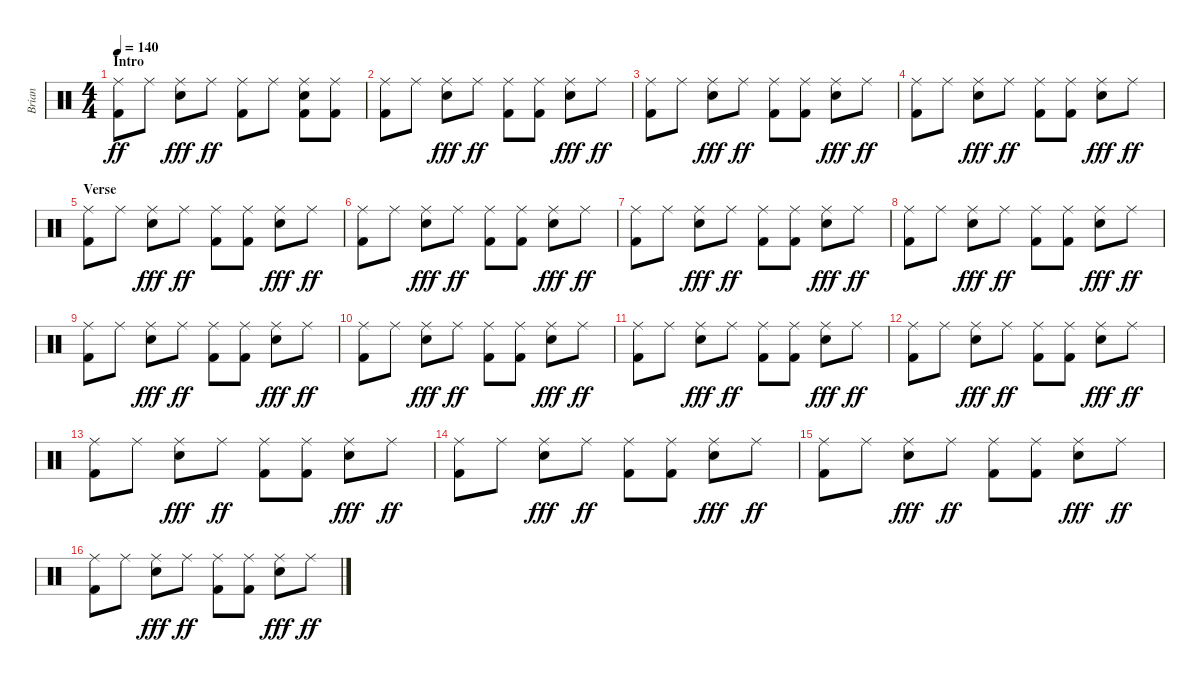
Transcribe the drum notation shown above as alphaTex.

\track ("Brian" "Brian") {instrument percussion}
\staff {score}
\articulation defaults
\ts (4 4)
\section ("" "Intro")
\tempo 140
\clef neutral
\ks c
("Ride (middle)" "Kick (hit) 2").8{dy ff} "Ride (middle)".8 ("Ride (middle)" "Snare (hit) 2").8{dy fff} "Ride (middle)".8{dy ff} ("Ride (middle)" "Kick (hit) 2").8 "Ride (middle)".8 ("Ride (middle)" "Snare (hit) 2" "Kick (hit) 2").8 ("Ride (middle)" "Kick (hit) 2").8 |
("Ride (middle)" "Kick (hit) 2").8 "Ride (middle)".8 ("Ride (middle)" "Snare (hit) 2").8{dy fff} "Ride (middle)".8{dy ff} ("Ride (middle)" "Kick (hit) 2").8 ("Ride (middle)" "Kick (hit) 2").8 ("Ride (middle)" "Snare (hit) 2").8{dy fff} "Ride (middle)".8{dy ff} |
("Ride (middle)" "Kick (hit) 2").8 "Ride (middle)".8 ("Ride (middle)" "Snare (hit) 2").8{dy fff} "Ride (middle)".8{dy ff} ("Ride (middle)" "Kick (hit) 2").8 ("Ride (middle)" "Kick (hit) 2").8 ("Ride (middle)" "Snare (hit) 2").8{dy fff} "Ride (middle)".8{dy ff} |
("Ride (middle)" "Kick (hit) 2").8 "Ride (middle)".8 ("Ride (middle)" "Snare (hit) 2").8{dy fff} "Ride (middle)".8{dy ff} ("Ride (middle)" "Kick (hit) 2").8 ("Ride (middle)" "Kick (hit) 2").8 ("Ride (middle)" "Snare (hit) 2").8{dy fff} "Ride (middle)".8{dy ff} |
\section ("" "Verse")
("Ride (middle)" "Kick (hit) 2").8 "Ride (middle)".8 ("Ride (middle)" "Snare (hit) 2").8{dy fff} "Ride (middle)".8{dy ff} ("Ride (middle)" "Kick (hit) 2").8 ("Ride (middle)" "Kick (hit) 2").8 ("Ride (middle)" "Snare (hit) 2").8{dy fff} "Ride (middle)".8{dy ff} |
("Ride (middle)" "Kick (hit) 2").8 "Ride (middle)".8 ("Ride (middle)" "Snare (hit) 2").8{dy fff} "Ride (middle)".8{dy ff} ("Ride (middle)" "Kick (hit) 2").8 ("Ride (middle)" "Kick (hit) 2").8 ("Ride (middle)" "Snare (hit) 2").8{dy fff} "Ride (middle)".8{dy ff} |
("Ride (middle)" "Kick (hit) 2").8 "Ride (middle)".8 ("Ride (middle)" "Snare (hit) 2").8{dy fff} "Ride (middle)".8{dy ff} ("Ride (middle)" "Kick (hit) 2").8 ("Ride (middle)" "Kick (hit) 2").8 ("Ride (middle)" "Snare (hit) 2").8{dy fff} "Ride (middle)".8{dy ff} |
("Ride (middle)" "Kick (hit) 2").8 "Ride (middle)".8 ("Ride (middle)" "Snare (hit) 2").8{dy fff} "Ride (middle)".8{dy ff} ("Ride (middle)" "Kick (hit) 2").8 ("Ride (middle)" "Kick (hit) 2").8 ("Ride (middle)" "Snare (hit) 2").8{dy fff} "Ride (middle)".8{dy ff} |
("Ride (middle)" "Kick (hit) 2").8 "Ride (middle)".8 ("Ride (middle)" "Snare (hit) 2").8{dy fff} "Ride (middle)".8{dy ff} ("Ride (middle)" "Kick (hit) 2").8 ("Ride (middle)" "Kick (hit) 2").8 ("Ride (middle)" "Snare (hit) 2").8{dy fff} "Ride (middle)".8{dy ff} |
("Ride (middle)" "Kick (hit) 2").8 "Ride (middle)".8 ("Ride (middle)" "Snare (hit) 2").8{dy fff} "Ride (middle)".8{dy ff} ("Ride (middle)" "Kick (hit) 2").8 ("Ride (middle)" "Kick (hit) 2").8 ("Ride (middle)" "Snare (hit) 2").8{dy fff} "Ride (middle)".8{dy ff} |
("Ride (middle)" "Kick (hit) 2").8 "Ride (middle)".8 ("Ride (middle)" "Snare (hit) 2").8{dy fff} "Ride (middle)".8{dy ff} ("Ride (middle)" "Kick (hit) 2").8 ("Ride (middle)" "Kick (hit) 2").8 ("Ride (middle)" "Snare (hit) 2").8{dy fff} "Ride (middle)".8{dy ff} |
("Ride (middle)" "Kick (hit) 2").8 "Ride (middle)".8 ("Ride (middle)" "Snare (hit) 2").8{dy fff} "Ride (middle)".8{dy ff} ("Ride (middle)" "Kick (hit) 2").8 ("Ride (middle)" "Kick (hit) 2").8 ("Ride (middle)" "Snare (hit) 2").8{dy fff} "Ride (middle)".8{dy ff} |
("Ride (middle)" "Kick (hit) 2").8 "Ride (middle)".8 ("Ride (middle)" "Snare (hit) 2").8{dy fff} "Ride (middle)".8{dy ff} ("Ride (middle)" "Kick (hit) 2").8 ("Ride (middle)" "Kick (hit) 2").8 ("Ride (middle)" "Snare (hit) 2").8{dy fff} "Ride (middle)".8{dy ff} |
("Ride (middle)" "Kick (hit) 2").8 "Ride (middle)".8 ("Ride (middle)" "Snare (hit) 2").8{dy fff} "Ride (middle)".8{dy ff} ("Ride (middle)" "Kick (hit) 2").8 ("Ride (middle)" "Kick (hit) 2").8 ("Ride (middle)" "Snare (hit) 2").8{dy fff} "Ride (middle)".8{dy ff} |
("Ride (middle)" "Kick (hit) 2").8 "Ride (middle)".8 ("Ride (middle)" "Snare (hit) 2").8{dy fff} "Ride (middle)".8{dy ff} ("Ride (middle)" "Kick (hit) 2").8 ("Ride (middle)" "Kick (hit) 2").8 ("Ride (middle)" "Snare (hit) 2").8{dy fff} "Ride (middle)".8{dy ff} |
("Ride (middle)" "Kick (hit) 2").8 "Ride (middle)".8 ("Ride (middle)" "Snare (hit) 2").8{dy fff} "Ride (middle)".8{dy ff} ("Ride (middle)" "Kick (hit) 2").8 ("Ride (middle)" "Kick (hit) 2").8 ("Ride (middle)" "Snare (hit) 2").8{dy fff} "Ride (middle)".8{dy ff}
